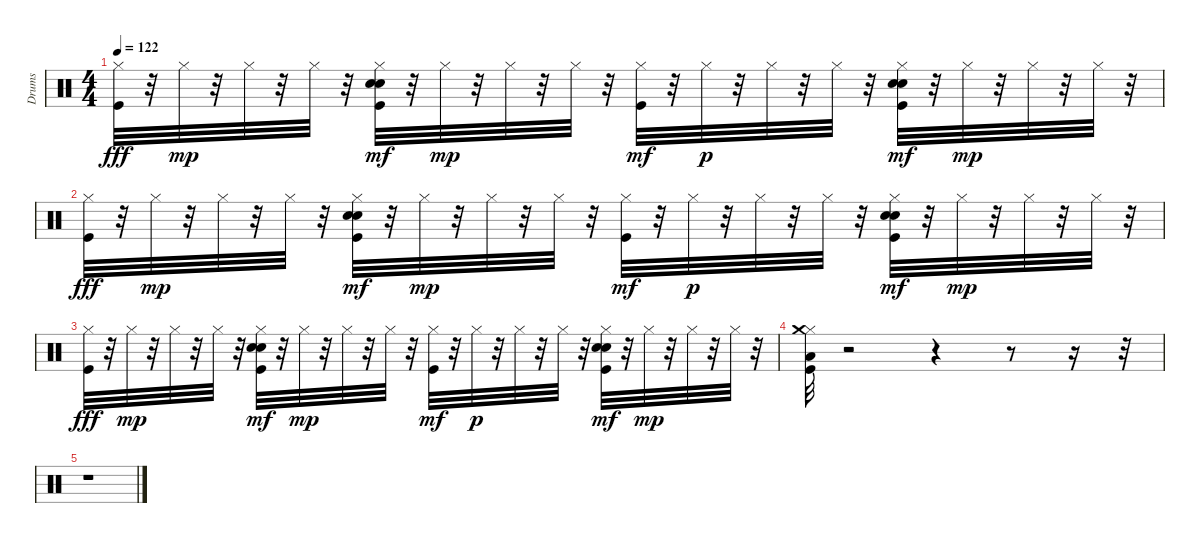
\track ("Drums" "Drums") {instrument percussion}
\staff {score}
\articulation defaults
\ts (4 4)
\tempo 122
\clef neutral
\ks c
("Kick (hit)" "Hi-Hat (closed)").32{dy fff} r.32 "Hi-Hat (closed)".32{dy mp} r.32 "Hi-Hat (closed)".32 r.32 "Hi-Hat (closed)".32 r.32 ("Kick (hit)" "Hand Clap (hit)" "Electric Snare (hit)" "Hi-Hat (closed)").32{dy mf} r.32 "Hi-Hat (closed)".32{dy mp} r.32 "Hi-Hat (closed)".32 r.32 "Hi-Hat (closed)".32 r.32 ("Kick (hit)" "Hi-Hat (closed)").32{dy mf} r.32 "Hi-Hat (closed)".32{dy p} r.32 "Hi-Hat (closed)".32 r.32 "Hi-Hat (closed)".32 r.32 ("Kick (hit)" "Hand Clap (hit)" "Electric Snare (hit)" "Hi-Hat (closed)").32{dy mf} r.32 "Hi-Hat (closed)".32{dy mp} r.32 "Hi-Hat (closed)".32 r.32 "Hi-Hat (closed)".32 r.32 |
("Kick (hit)" "Hi-Hat (closed)").32{dy fff} r.32 "Hi-Hat (closed)".32{dy mp} r.32 "Hi-Hat (closed)".32 r.32 "Hi-Hat (closed)".32 r.32 ("Kick (hit)" "Hand Clap (hit)" "Electric Snare (hit)" "Hi-Hat (closed)").32{dy mf} r.32 "Hi-Hat (closed)".32{dy mp} r.32 "Hi-Hat (closed)".32 r.32 "Hi-Hat (closed)".32 r.32 ("Kick (hit)" "Hi-Hat (closed)").32{dy mf} r.32 "Hi-Hat (closed)".32{dy p} r.32 "Hi-Hat (closed)".32 r.32 "Hi-Hat (closed)".32 r.32 ("Kick (hit)" "Hand Clap (hit)" "Electric Snare (hit)" "Hi-Hat (closed)").32{dy mf} r.32 "Hi-Hat (closed)".32{dy mp} r.32 "Hi-Hat (closed)".32 r.32 "Hi-Hat (closed)".32 r.32 |
("Kick (hit)" "Hi-Hat (closed)").32{dy fff} r.32 "Hi-Hat (closed)".32{dy mp} r.32 "Hi-Hat (closed)".32 r.32 "Hi-Hat (closed)".32 r.32 ("Kick (hit)" "Hand Clap (hit)" "Electric Snare (hit)" "Hi-Hat (closed)").32{dy mf} r.32 "Hi-Hat (closed)".32{dy mp} r.32 "Hi-Hat (closed)".32 r.32 "Hi-Hat (closed)".32 r.32 ("Kick (hit)" "Hi-Hat (closed)").32{dy mf} r.32 "Hi-Hat (closed)".32{dy p} r.32 "Hi-Hat (closed)".32 r.32 "Hi-Hat (closed)".32 r.32 ("Kick (hit)" "Hand Clap (hit)" "Electric Snare (hit)" "Hi-Hat (closed)").32{dy mf} r.32 "Hi-Hat (closed)".32{dy mp} r.32 "Hi-Hat (closed)".32 r.32 "Hi-Hat (closed)".32 r.32 |
("Kick (hit)" "Low Floor Tom (hit)" "Hi-Hat (closed)" "Crash medium (hit)").32 r.2 r.4 r.8 r.16 r.32 |
r.1
